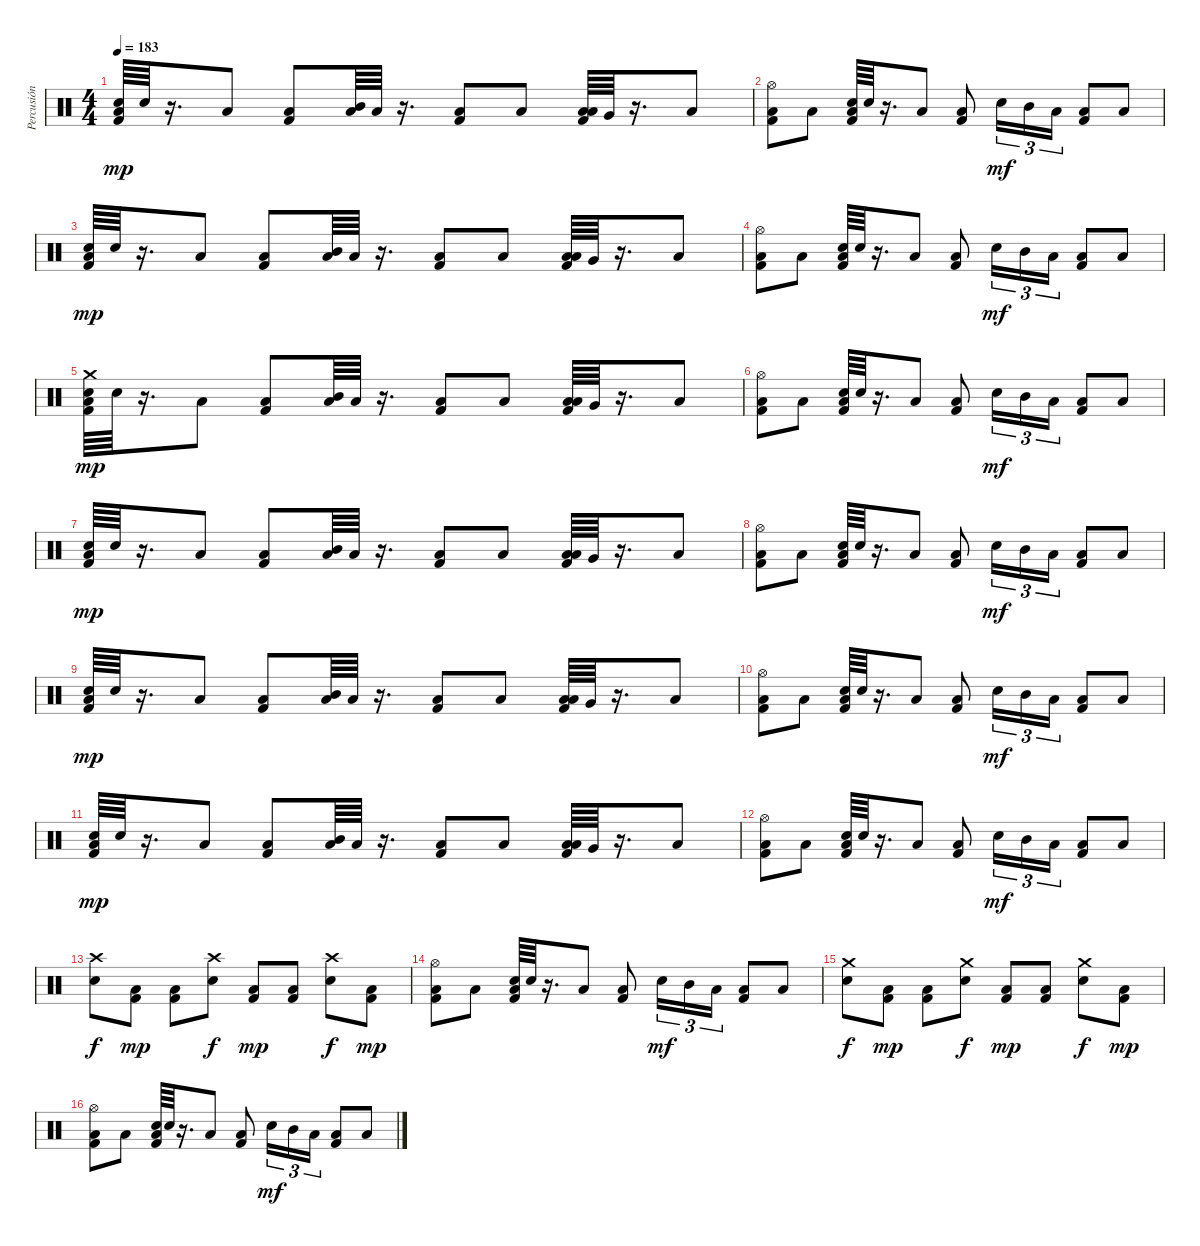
\track ("Percusión" "Percusión") {instrument percussion}
\staff {score}
\articulation defaults
\ts (4 4)
\tempo 183
\clef neutral
\ks c
("Low Floor Tom (hit)" "Electric Snare (hit)" "Kick (hit) 2").64{dy mp} "Electric Snare (hit)".64 r.16{d} "Low Floor Tom (hit)".8 ("Low Floor Tom (hit)" "Kick (hit) 2").8 ("Low Floor Tom (hit)" "Mid Tom (hit)").64 "Low Tom (hit)".64 r.16{d} ("Low Floor Tom (hit)" "Kick (hit) 2").8 "Low Floor Tom (hit)".8 ("Low Floor Tom (hit)" "Low Tom (hit)" "Kick (hit) 2").64 "Very Low Tom (hit)".64 r.16{d} "Low Floor Tom (hit)".8 |
("Low Floor Tom (hit)" "Hi-Hat (open)" "Kick (hit) 2").8 "Low Floor Tom (hit)".8 ("Low Floor Tom (hit)" "Electric Snare (hit)" "Kick (hit) 2").64 "Electric Snare (hit)".64 r.16{d} "Low Floor Tom (hit)".8 ("Low Floor Tom (hit)" "Kick (hit) 2").8 "Electric Snare (hit)".16{tu (3 2) dy mf} "Mid Tom (hit)".16{tu (3 2)} "Low Tom (hit)".16{tu (3 2)} ("Low Tom (hit)" "Kick (hit) 2").8 "Low Floor Tom (hit)".8 |
("Low Floor Tom (hit)" "Electric Snare (hit)" "Kick (hit) 2").64{dy mp} "Electric Snare (hit)".64 r.16{d} "Low Floor Tom (hit)".8 ("Low Floor Tom (hit)" "Kick (hit) 2").8 ("Low Floor Tom (hit)" "Mid Tom (hit)").64 "Low Tom (hit)".64 r.16{d} ("Low Floor Tom (hit)" "Kick (hit) 2").8 "Low Floor Tom (hit)".8 ("Low Floor Tom (hit)" "Low Tom (hit)" "Kick (hit) 2").64 "Very Low Tom (hit)".64 r.16{d} "Low Floor Tom (hit)".8 |
("Low Floor Tom (hit)" "Hi-Hat (open)" "Kick (hit) 2").8 "Low Floor Tom (hit)".8 ("Low Floor Tom (hit)" "Electric Snare (hit)" "Kick (hit) 2").64 "Electric Snare (hit)".64 r.16{d} "Low Floor Tom (hit)".8 ("Low Floor Tom (hit)" "Kick (hit) 2").8 "Electric Snare (hit)".16{tu (3 2) dy mf} "Mid Tom (hit)".16{tu (3 2)} "Low Tom (hit)".16{tu (3 2)} ("Low Tom (hit)" "Kick (hit) 2").8 "Low Floor Tom (hit)".8 |
("Crash medium (hit)" "Low Floor Tom (hit)" "Electric Snare (hit)" "Kick (hit) 2").64{dy mp} "Electric Snare (hit)".64 r.16{d} "Low Floor Tom (hit)".8 ("Low Floor Tom (hit)" "Kick (hit) 2").8 ("Low Floor Tom (hit)" "Mid Tom (hit)").64 "Low Tom (hit)".64 r.16{d} ("Low Floor Tom (hit)" "Kick (hit) 2").8 "Low Floor Tom (hit)".8 ("Low Floor Tom (hit)" "Low Tom (hit)" "Kick (hit) 2").64 "Very Low Tom (hit)".64 r.16{d} "Low Floor Tom (hit)".8 |
("Low Floor Tom (hit)" "Hi-Hat (open)" "Kick (hit) 2").8 "Low Floor Tom (hit)".8 ("Low Floor Tom (hit)" "Electric Snare (hit)" "Kick (hit) 2").64 "Electric Snare (hit)".64 r.16{d} "Low Floor Tom (hit)".8 ("Low Floor Tom (hit)" "Kick (hit) 2").8 "Electric Snare (hit)".16{tu (3 2) dy mf} "Mid Tom (hit)".16{tu (3 2)} "Low Tom (hit)".16{tu (3 2)} ("Low Tom (hit)" "Kick (hit) 2").8 "Low Floor Tom (hit)".8 |
("Low Floor Tom (hit)" "Electric Snare (hit)" "Kick (hit) 2").64{dy mp} "Electric Snare (hit)".64 r.16{d} "Low Floor Tom (hit)".8 ("Low Floor Tom (hit)" "Kick (hit) 2").8 ("Low Floor Tom (hit)" "Mid Tom (hit)").64 "Low Tom (hit)".64 r.16{d} ("Low Floor Tom (hit)" "Kick (hit) 2").8 "Low Floor Tom (hit)".8 ("Low Floor Tom (hit)" "Low Tom (hit)" "Kick (hit) 2").64 "Very Low Tom (hit)".64 r.16{d} "Low Floor Tom (hit)".8 |
("Low Floor Tom (hit)" "Hi-Hat (open)" "Kick (hit) 2").8 "Low Floor Tom (hit)".8 ("Low Floor Tom (hit)" "Electric Snare (hit)" "Kick (hit) 2").64 "Electric Snare (hit)".64 r.16{d} "Low Floor Tom (hit)".8 ("Low Floor Tom (hit)" "Kick (hit) 2").8 "Electric Snare (hit)".16{tu (3 2) dy mf} "Mid Tom (hit)".16{tu (3 2)} "Low Tom (hit)".16{tu (3 2)} ("Low Tom (hit)" "Kick (hit) 2").8 "Low Floor Tom (hit)".8 |
("Low Floor Tom (hit)" "Electric Snare (hit)" "Kick (hit) 2").64{dy mp} "Electric Snare (hit)".64 r.16{d} "Low Floor Tom (hit)".8 ("Low Floor Tom (hit)" "Kick (hit) 2").8 ("Low Floor Tom (hit)" "Mid Tom (hit)").64 "Low Tom (hit)".64 r.16{d} ("Low Floor Tom (hit)" "Kick (hit) 2").8 "Low Floor Tom (hit)".8 ("Low Floor Tom (hit)" "Low Tom (hit)" "Kick (hit) 2").64 "Very Low Tom (hit)".64 r.16{d} "Low Floor Tom (hit)".8 |
("Low Floor Tom (hit)" "Hi-Hat (open)" "Kick (hit) 2").8 "Low Floor Tom (hit)".8 ("Low Floor Tom (hit)" "Electric Snare (hit)" "Kick (hit) 2").64 "Electric Snare (hit)".64 r.16{d} "Low Floor Tom (hit)".8 ("Low Floor Tom (hit)" "Kick (hit) 2").8 "Electric Snare (hit)".16{tu (3 2) dy mf} "Mid Tom (hit)".16{tu (3 2)} "Low Tom (hit)".16{tu (3 2)} ("Low Tom (hit)" "Kick (hit) 2").8 "Low Floor Tom (hit)".8 |
("Low Floor Tom (hit)" "Electric Snare (hit)" "Kick (hit) 2").64{dy mp} "Electric Snare (hit)".64 r.16{d} "Low Floor Tom (hit)".8 ("Low Floor Tom (hit)" "Kick (hit) 2").8 ("Low Floor Tom (hit)" "Mid Tom (hit)").64 "Low Tom (hit)".64 r.16{d} ("Low Floor Tom (hit)" "Kick (hit) 2").8 "Low Floor Tom (hit)".8 ("Low Floor Tom (hit)" "Low Tom (hit)" "Kick (hit) 2").64 "Very Low Tom (hit)".64 r.16{d} "Low Floor Tom (hit)".8 |
("Low Floor Tom (hit)" "Hi-Hat (open)" "Kick (hit) 2").8 "Low Floor Tom (hit)".8 ("Low Floor Tom (hit)" "Electric Snare (hit)" "Kick (hit) 2").64 "Electric Snare (hit)".64 r.16{d} "Low Floor Tom (hit)".8 ("Low Floor Tom (hit)" "Kick (hit) 2").8 "Electric Snare (hit)".16{tu (3 2) dy mf} "Mid Tom (hit)".16{tu (3 2)} "Low Tom (hit)".16{tu (3 2)} ("Low Tom (hit)" "Kick (hit) 2").8 "Low Floor Tom (hit)".8 |
("Crash high (hit)" "Electric Snare (hit)").8{dy f} ("Kick (hit) 2" "Low Floor Tom (hit)").8{dy mp} ("Kick (hit) 2" "Low Floor Tom (hit)").8 ("Crash high (hit)" "Electric Snare (hit)").8{dy f} ("Kick (hit) 2" "Low Floor Tom (hit)").8{dy mp} ("Kick (hit) 2" "Low Floor Tom (hit)").8 ("Crash high (hit)" "Electric Snare (hit)").8{dy f} ("Kick (hit) 2" "Low Floor Tom (hit)").8{dy mp} |
("Low Floor Tom (hit)" "Hi-Hat (open)" "Kick (hit) 2").8 "Low Floor Tom (hit)".8 ("Low Floor Tom (hit)" "Electric Snare (hit)" "Kick (hit) 2").64 "Electric Snare (hit)".64 r.16{d} "Low Floor Tom (hit)".8 ("Low Floor Tom (hit)" "Kick (hit) 2").8 "Electric Snare (hit)".16{tu (3 2) dy mf} "Mid Tom (hit)".16{tu (3 2)} "Low Tom (hit)".16{tu (3 2)} ("Low Tom (hit)" "Kick (hit) 2").8 "Low Floor Tom (hit)".8 |
("Crash medium (hit)" "Electric Snare (hit)").8{dy f} ("Kick (hit) 2" "Low Floor Tom (hit)").8{dy mp} ("Kick (hit) 2" "Low Floor Tom (hit)").8 ("Crash medium (hit)" "Electric Snare (hit)").8{dy f} ("Kick (hit) 2" "Low Floor Tom (hit)").8{dy mp} ("Kick (hit) 2" "Low Floor Tom (hit)").8 ("Crash medium (hit)" "Electric Snare (hit)").8{dy f} ("Kick (hit) 2" "Low Floor Tom (hit)").8{dy mp} |
("Low Floor Tom (hit)" "Hi-Hat (open)" "Kick (hit) 2").8 "Low Floor Tom (hit)".8 ("Low Floor Tom (hit)" "Electric Snare (hit)" "Kick (hit) 2").64 "Electric Snare (hit)".64 r.16{d} "Low Floor Tom (hit)".8 ("Low Floor Tom (hit)" "Kick (hit) 2").8 "Electric Snare (hit)".16{tu (3 2) dy mf} "Mid Tom (hit)".16{tu (3 2)} "Low Tom (hit)".16{tu (3 2)} ("Low Tom (hit)" "Kick (hit) 2").8 "Low Floor Tom (hit)".8
